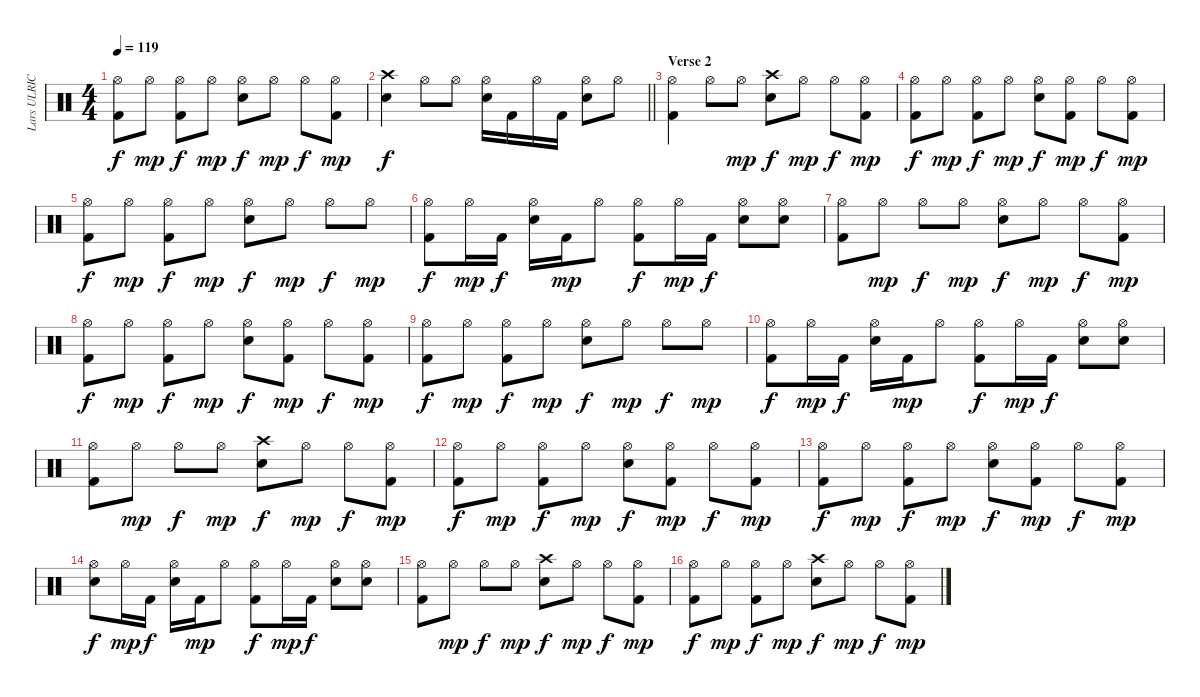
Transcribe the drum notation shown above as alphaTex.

\track ("Lars ULRICH" "Lars ULRIC") {instrument percussion}
\staff {score}
\articulation defaults
\ts (4 4)
\tempo 119
\clef neutral
\ks c
("Hi-Hat (open)" "Kick (hit) 2").8{dy f} "Hi-Hat (open)".8{dy mp} ("Hi-Hat (open)" "Kick (hit) 2").8{dy f} "Hi-Hat (open)".8{dy mp} ("Hi-Hat (open)" "Snare (hit) 2").8{dy f} "Hi-Hat (open)".8{dy mp} "Hi-Hat (open)".8{dy f} ("Hi-Hat (open)" "Kick (hit) 2").8{dy mp} |
\barLineRight lightlight
("Crash high (hit)" "Snare (hit) 2").4{dy f} "Hi-Hat (open)".8 "Hi-Hat (open)".8 ("Hi-Hat (open)" "Snare (hit) 2").16 "Kick (hit) 2".16 "Hi-Hat (open)".16 "Kick (hit) 2".16 ("Hi-Hat (open)" "Snare (hit) 2").8 "Hi-Hat (open)".8 |
\section ("" "Verse 2")
("Hi-Hat (open)" "Kick (hit) 2").4 "Hi-Hat (open)".8 "Hi-Hat (open)".8{dy mp} ("Crash high (hit)" "Snare (hit) 2").8{dy f} "Hi-Hat (open)".8{dy mp} "Hi-Hat (open)".8{dy f} ("Hi-Hat (open)" "Kick (hit) 2").8{dy mp} |
("Hi-Hat (open)" "Kick (hit) 2").8{dy f} "Hi-Hat (open)".8{dy mp} ("Hi-Hat (open)" "Kick (hit) 2").8{dy f} "Hi-Hat (open)".8{dy mp} ("Hi-Hat (open)" "Snare (hit) 2").8{dy f} ("Hi-Hat (open)" "Kick (hit) 2").8{dy mp} "Hi-Hat (open)".8{dy f} ("Hi-Hat (open)" "Kick (hit) 2").8{dy mp} |
("Hi-Hat (open)" "Kick (hit) 2").8{dy f} "Hi-Hat (open)".8{dy mp} ("Hi-Hat (open)" "Kick (hit) 2").8{dy f} "Hi-Hat (open)".8{dy mp} ("Hi-Hat (open)" "Snare (hit) 2").8{dy f} "Hi-Hat (open)".8{dy mp} "Hi-Hat (open)".8{dy f} "Hi-Hat (open)".8{dy mp} |
("Hi-Hat (open)" "Kick (hit) 2").8{dy f} "Hi-Hat (open)".16{dy mp} "Kick (hit) 2".16{dy f} ("Hi-Hat (open)" "Snare (hit) 2").16 "Kick (hit) 2".16{dy mp} "Hi-Hat (open)".8 ("Hi-Hat (open)" "Kick (hit) 2").8{dy f} "Hi-Hat (open)".16{dy mp} "Kick (hit) 2".16{dy f} ("Hi-Hat (open)" "Snare (hit) 2").8 ("Hi-Hat (open)" "Snare (hit) 2").8 |
("Hi-Hat (open)" "Kick (hit) 2").8 "Hi-Hat (open)".8{dy mp} "Hi-Hat (open)".8{dy f} "Hi-Hat (open)".8{dy mp} ("Hi-Hat (open)" "Snare (hit) 2").8{dy f} "Hi-Hat (open)".8{dy mp} "Hi-Hat (open)".8{dy f} ("Hi-Hat (open)" "Kick (hit) 2").8{dy mp} |
("Hi-Hat (open)" "Kick (hit) 2").8{dy f} "Hi-Hat (open)".8{dy mp} ("Hi-Hat (open)" "Kick (hit) 2").8{dy f} "Hi-Hat (open)".8{dy mp} ("Hi-Hat (open)" "Snare (hit) 2").8{dy f} ("Hi-Hat (open)" "Kick (hit) 2").8{dy mp} "Hi-Hat (open)".8{dy f} ("Hi-Hat (open)" "Kick (hit) 2").8{dy mp} |
("Hi-Hat (open)" "Kick (hit) 2").8{dy f} "Hi-Hat (open)".8{dy mp} ("Hi-Hat (open)" "Kick (hit) 2").8{dy f} "Hi-Hat (open)".8{dy mp} ("Hi-Hat (open)" "Snare (hit) 2").8{dy f} "Hi-Hat (open)".8{dy mp} "Hi-Hat (open)".8{dy f} "Hi-Hat (open)".8{dy mp} |
("Hi-Hat (open)" "Kick (hit) 2").8{dy f} "Hi-Hat (open)".16{dy mp} "Kick (hit) 2".16{dy f} ("Hi-Hat (open)" "Snare (hit) 2").16 "Kick (hit) 2".16{dy mp} "Hi-Hat (open)".8 ("Hi-Hat (open)" "Kick (hit) 2").8{dy f} "Hi-Hat (open)".16{dy mp} "Kick (hit) 2".16{dy f} ("Hi-Hat (open)" "Snare (hit) 2").8 ("Hi-Hat (open)" "Snare (hit) 2").8 |
("Hi-Hat (open)" "Kick (hit) 2").8 "Hi-Hat (open)".8{dy mp} "Hi-Hat (open)".8{dy f} "Hi-Hat (open)".8{dy mp} ("Crash high (hit)" "Snare (hit) 2").8{dy f} "Hi-Hat (open)".8{dy mp} "Hi-Hat (open)".8{dy f} ("Hi-Hat (open)" "Kick (hit) 2").8{dy mp} |
("Hi-Hat (open)" "Kick (hit) 2").8{dy f} "Hi-Hat (open)".8{dy mp} ("Hi-Hat (open)" "Kick (hit) 2").8{dy f} "Hi-Hat (open)".8{dy mp} ("Hi-Hat (open)" "Snare (hit) 2").8{dy f} ("Hi-Hat (open)" "Kick (hit) 2").8{dy mp} "Hi-Hat (open)".8{dy f} ("Hi-Hat (open)" "Kick (hit) 2").8{dy mp} |
("Hi-Hat (open)" "Kick (hit) 2").8{dy f} "Hi-Hat (open)".8{dy mp} ("Hi-Hat (open)" "Kick (hit) 2").8{dy f} "Hi-Hat (open)".8{dy mp} ("Hi-Hat (open)" "Snare (hit) 2").8{dy f} ("Hi-Hat (open)" "Kick (hit) 2").8{dy mp} "Hi-Hat (open)".8{dy f} ("Hi-Hat (open)" "Kick (hit) 2").8{dy mp} |
("Hi-Hat (open)" "Snare (hit) 2").8{dy f} "Hi-Hat (open)".16{dy mp} "Kick (hit) 2".16{dy f} ("Hi-Hat (open)" "Snare (hit) 2").16 "Kick (hit) 2".16{dy mp} "Hi-Hat (open)".8 ("Hi-Hat (open)" "Kick (hit) 2").8{dy f} "Hi-Hat (open)".16{dy mp} "Kick (hit) 2".16{dy f} ("Hi-Hat (open)" "Snare (hit) 2").8 ("Hi-Hat (open)" "Snare (hit) 2").8 |
("Hi-Hat (open)" "Kick (hit) 2").8 "Hi-Hat (open)".8{dy mp} "Hi-Hat (open)".8{dy f} "Hi-Hat (open)".8{dy mp} ("Crash high (hit)" "Snare (hit) 2").8{dy f} "Hi-Hat (open)".8{dy mp} "Hi-Hat (open)".8{dy f} ("Hi-Hat (open)" "Kick (hit) 2").8{dy mp} |
("Hi-Hat (open)" "Kick (hit) 2").8{dy f} "Hi-Hat (open)".8{dy mp} ("Hi-Hat (open)" "Kick (hit) 2").8{dy f} "Hi-Hat (open)".8{dy mp} ("Crash high (hit)" "Snare (hit) 2").8{dy f} "Hi-Hat (open)".8{dy mp} "Hi-Hat (open)".8{dy f} ("Hi-Hat (open)" "Kick (hit) 2").8{dy mp}
